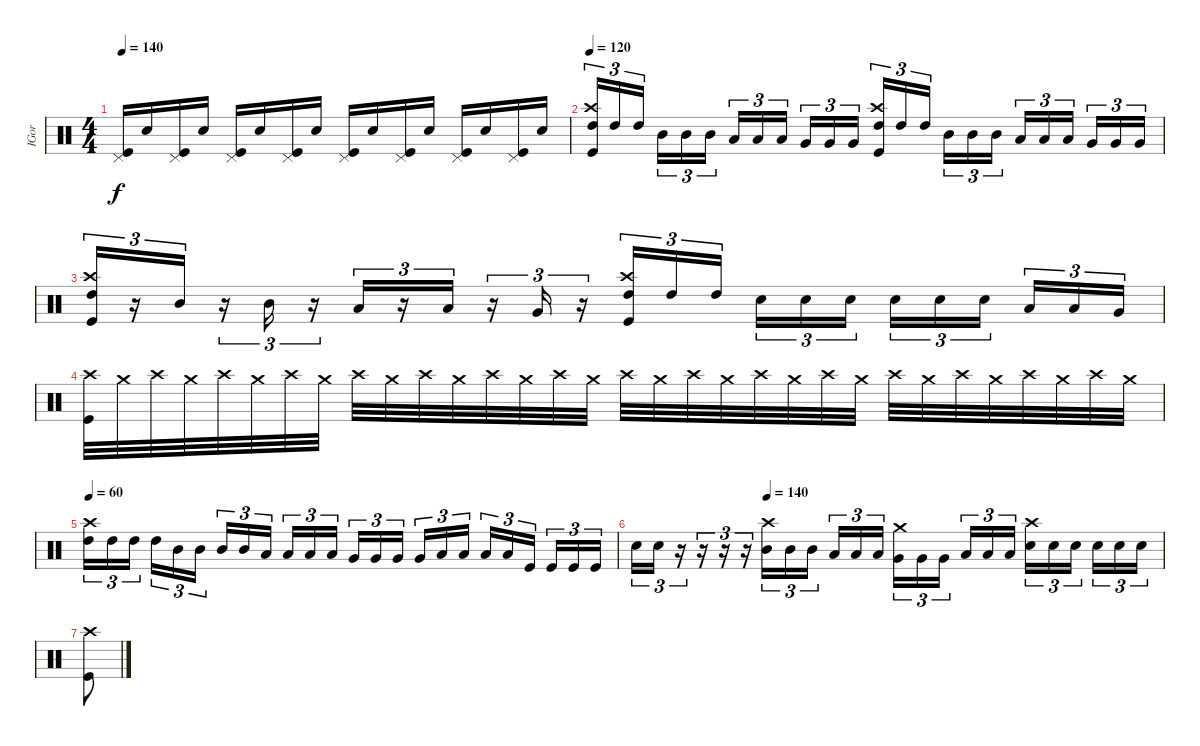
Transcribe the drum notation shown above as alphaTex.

\track ("IGor" "IGor") {instrument percussion}
\staff {score}
\articulation defaults
\ts (4 4)
\tempo 140
\clef neutral
\ks c
("Kick (hit)" "Pedal Hi-Hat (hit)").16{dy f} "Electric Snare (hit)".16 ("Pedal Hi-Hat (hit)" "Kick (hit)").16 "Electric Snare (hit)".16 ("Pedal Hi-Hat (hit)" "Kick (hit)").16 "Electric Snare (hit)".16 ("Pedal Hi-Hat (hit)" "Kick (hit)").16 "Electric Snare (hit)".16 ("Pedal Hi-Hat (hit)" "Kick (hit)").16 "Electric Snare (hit)".16 ("Pedal Hi-Hat (hit)" "Kick (hit)").16 "Electric Snare (hit)".16 ("Pedal Hi-Hat (hit)" "Kick (hit)").16 "Electric Snare (hit)".16 ("Pedal Hi-Hat (hit)" "Kick (hit)").16 "Electric Snare (hit)".16 |
\tempo 120
("Crash high (hit)" "High Tom (hit)" "Kick (hit)").16{tu (3 2)} "High Tom (hit)".16{tu (3 2)} "High Tom (hit)".16{tu (3 2)} "Mid Tom (hit)".16{tu (3 2)} "Mid Tom (hit)".16{tu (3 2)} "Mid Tom (hit)".16{tu (3 2)} "Low Tom (hit)".16{tu (3 2)} "Low Tom (hit)".16{tu (3 2)} "Low Tom (hit)".16{tu (3 2)} "Very Low Tom (hit)".16{tu (3 2)} "Very Low Tom (hit)".16{tu (3 2)} "Very Low Tom (hit)".16{tu (3 2)} ("Crash high (hit)" "High Tom (hit)" "Kick (hit)").16{tu (3 2)} "High Tom (hit)".16{tu (3 2)} "High Tom (hit)".16{tu (3 2)} "Mid Tom (hit)".16{tu (3 2)} "Mid Tom (hit)".16{tu (3 2)} "Mid Tom (hit)".16{tu (3 2)} "Low Tom (hit)".16{tu (3 2)} "Low Tom (hit)".16{tu (3 2)} "Low Tom (hit)".16{tu (3 2)} "Very Low Tom (hit)".16{tu (3 2)} "Very Low Tom (hit)".16{tu (3 2)} "Very Low Tom (hit)".16{tu (3 2)} |
("Crash high (hit)" "High Tom (hit)" "Kick (hit)").16{tu (3 2)} r.16{tu (3 2)} "Mid Tom (hit)".16{tu (3 2)} r.16{tu (3 2)} "Mid Tom (hit)".16{tu (3 2)} r.16{tu (3 2)} "Low Tom (hit)".16{tu (3 2)} r.16{tu (3 2)} "Low Tom (hit)".16{tu (3 2)} r.16{tu (3 2)} "Very Low Tom (hit)".16{tu (3 2)} r.16{tu (3 2)} ("Crash high (hit)" "High Tom (hit)" "Kick (hit)").16{tu (3 2)} "High Tom (hit)".16{tu (3 2)} "High Tom (hit)".16{tu (3 2)} "Electric Snare (hit)".16{tu (3 2)} "Electric Snare (hit)".16{tu (3 2)} "Electric Snare (hit)".16{tu (3 2)} "Electric Snare (hit)".16{tu (3 2)} "Electric Snare (hit)".16{tu (3 2)} "Electric Snare (hit)".16{tu (3 2)} "Low Tom (hit)".16{tu (3 2)} "Low Tom (hit)".16{tu (3 2)} "Very Low Tom (hit)".16{tu (3 2)} |
("Kick (hit)" "Crash high (hit)").32 "Crash medium (hit)".32 "Crash high (hit)".32 "Crash medium (hit)".32 "Crash high (hit)".32 "Crash medium (hit)".32 "Crash high (hit)".32 "Crash medium (hit)".32 "Crash high (hit)".32 "Crash medium (hit)".32 "Crash high (hit)".32 "Crash medium (hit)".32 "Crash high (hit)".32 "Crash medium (hit)".32 "Crash high (hit)".32 "Crash medium (hit)".32 "Crash high (hit)".32 "Crash medium (hit)".32 "Crash high (hit)".32 "Crash medium (hit)".32 "Crash high (hit)".32 "Crash medium (hit)".32 "Crash high (hit)".32 "Crash medium (hit)".32 "Crash high (hit)".32 "Crash medium (hit)".32 "Crash high (hit)".32 "Crash medium (hit)".32 "Crash high (hit)".32 "Crash medium (hit)".32 "Crash high (hit)".32 "Crash medium (hit)".32 |
\tempo 60
("High Tom (hit)" "Crash high (hit)").16{tu (3 2)} "High Tom (hit)".16{tu (3 2)} "High Tom (hit)".16{tu (3 2)} "High Tom (hit)".16{tu (3 2)} "Mid Tom (hit)".16{tu (3 2)} "Mid Tom (hit)".16{tu (3 2)} "Mid Tom (hit)".16{tu (3 2)} "Mid Tom (hit)".16{tu (3 2)} "Low Tom (hit)".16{tu (3 2)} "Low Tom (hit)".16{tu (3 2)} "Low Tom (hit)".16{tu (3 2)} "Low Tom (hit)".16{tu (3 2)} "Very Low Tom (hit)".16{tu (3 2)} "Very Low Tom (hit)".16{tu (3 2)} "Very Low Tom (hit)".16{tu (3 2)} "Very Low Tom (hit)".16{tu (3 2)} "Low Floor Tom (hit)".16{tu (3 2)} "Low Floor Tom (hit)".16{tu (3 2)} "Low Floor Tom (hit)".16{tu (3 2)} "Low Floor Tom (hit)".16{tu (3 2)} "Kick (hit)".16{tu (3 2)} "Kick (hit)".16{tu (3 2)} "Kick (hit)".16{tu (3 2)} "Kick (hit)".16{tu (3 2)} |
\tempo (140 0.25)
"Electric Snare (hit)".16{tu (3 2)} "Electric Snare (hit)".16{tu (3 2)} r.16{tu (3 2)} r.16{tu (3 2)} r.16{tu (3 2)} r.16{tu (3 2)} ("Mid Tom (hit)" "Crash high (hit)").16{tu (3 2)} "Mid Tom (hit)".16{tu (3 2)} "Mid Tom (hit)".16{tu (3 2)} "Low Tom (hit)".16{tu (3 2)} "Low Tom (hit)".16{tu (3 2)} "Low Tom (hit)".16{tu (3 2)} ("Very Low Tom (hit)" "Crash medium (hit)").16{tu (3 2)} "Very Low Tom (hit)".16{tu (3 2)} "Very Low Tom (hit)".16{tu (3 2)} "Low Floor Tom (hit)".16{tu (3 2)} "Low Floor Tom (hit)".16{tu (3 2)} "Low Floor Tom (hit)".16{tu (3 2)} ("Electric Snare (hit)" "Crash high (hit)").16{tu (3 2)} "Electric Snare (hit)".16{tu (3 2)} "Electric Snare (hit)".16{tu (3 2)} "Electric Snare (hit)".16{tu (3 2)} "Electric Snare (hit)".16{tu (3 2)} "Electric Snare (hit)".16{tu (3 2)} |
("Kick (hit)" "Crash high (hit)").8
